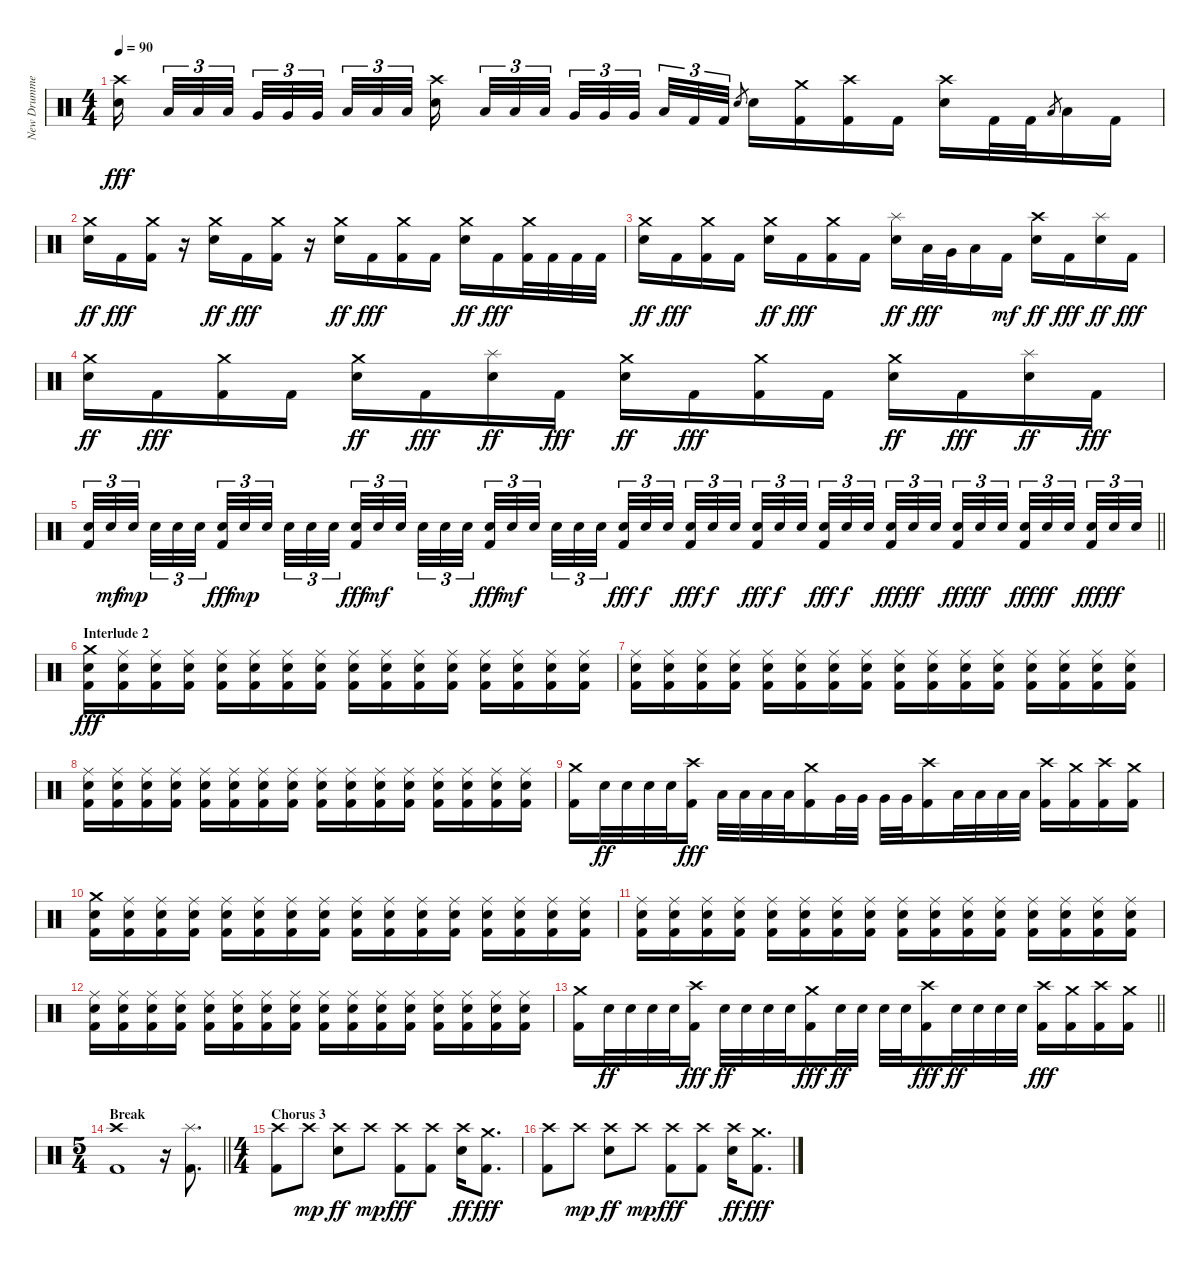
\track ("New Drummer" "New Drumme") {instrument percussion}
\staff {score}
\articulation defaults
\ts (4 4)
\tempo 90
\clef neutral
\ks c
("Crash high (hit)" "Electric Snare (hit)").16{dy fff beam splitsecondary} "Low Tom (hit)".32{tu (3 2)} "Low Tom (hit)".32{tu (3 2)} "Low Tom (hit)".32{tu (3 2) beam splitsecondary} "Very Low Tom (hit)".32{tu (3 2)} "Very Low Tom (hit)".32{tu (3 2)} "Very Low Tom (hit)".32{tu (3 2) beam splitsecondary} "Low Floor Tom (hit)".32{tu (3 2)} "Low Floor Tom (hit)".32{tu (3 2)} "Low Floor Tom (hit)".32{tu (3 2)} ("Crash high (hit)" "Electric Snare (hit)").16{beam splitsecondary} "Low Tom (hit)".32{tu (3 2)} "Low Tom (hit)".32{tu (3 2)} "Low Tom (hit)".32{tu (3 2) beam splitsecondary} "Very Low Tom (hit)".32{tu (3 2)} "Very Low Tom (hit)".32{tu (3 2)} "Very Low Tom (hit)".32{tu (3 2) beam splitsecondary} "Low Floor Tom (hit)".32{tu (3 2)} "Kick (hit) 2".32{tu (3 2)} "Kick (hit) 2".32{tu (3 2)} "Electric Snare (hit)".8{gr} "Electric Snare (hit)".16 ("Crash medium (hit)" "Kick (hit) 2").16 ("Crash high (hit)" "Kick (hit) 2").16 "Kick (hit) 2".16 ("Crash high (hit)" "Electric Snare (hit)").16 "Kick (hit) 2".32 "Kick (hit) 2".32 "Low Floor Tom (hit)".8{gr} "Low Floor Tom (hit)".16 "Kick (hit) 2".16 |
("Crash medium (hit)" "Electric Snare (hit)").16{dy ff} "Kick (hit) 2".16{dy fff} ("Crash medium (hit)" "Kick (hit) 2").16 r.16 ("Crash medium (hit)" "Electric Snare (hit)").16{dy ff} "Kick (hit) 2".16{dy fff} ("Crash medium (hit)" "Kick (hit) 2").16 r.16 ("Crash medium (hit)" "Electric Snare (hit)").16{dy ff} "Kick (hit) 2".16{dy fff} ("Crash medium (hit)" "Kick (hit) 2").16 "Kick (hit) 2".16 ("Crash medium (hit)" "Electric Snare (hit)").16{dy ff} "Kick (hit) 2".16{dy fff} ("Crash medium (hit)" "Kick (hit) 2").32 "Kick (hit) 2".32 "Kick (hit) 2".32 "Kick (hit) 2".32 |
("Crash medium (hit)" "Electric Snare (hit)").16{dy ff} "Kick (hit) 2".16{dy fff} ("Crash medium (hit)" "Kick (hit) 2").16 "Kick (hit) 2".16 ("Crash medium (hit)" "Electric Snare (hit)").16{dy ff} "Kick (hit) 2".16{dy fff} ("Crash medium (hit)" "Kick (hit) 2").16 "Kick (hit) 2".16 ("Splash (hit)" "Electric Snare (hit)").16{dy ff} "Low Tom (hit)".32{dy fff} "Very Low Tom (hit)".32 "Low Floor Tom (hit)".16 "Kick (hit) 2".16{dy mf} ("Crash high (hit)" "Electric Snare (hit)").16{dy ff} "Kick (hit) 2".16{dy fff} ("Splash (hit)" "Electric Snare (hit)").16{dy ff} "Kick (hit) 2".16{dy fff} |
("Crash medium (hit)" "Electric Snare (hit)").16{dy ff} "Kick (hit) 2".16{dy fff} ("Crash medium (hit)" "Kick (hit) 2").16 "Kick (hit) 2".16 ("Crash medium (hit)" "Electric Snare (hit)").16{dy ff} "Kick (hit) 2".16{dy fff} ("Splash (hit)" "Electric Snare (hit)").16{dy ff} "Kick (hit) 2".16{dy fff} ("Crash medium (hit)" "Electric Snare (hit)").16{dy ff} "Kick (hit) 2".16{dy fff} ("Crash medium (hit)" "Kick (hit) 2").16 "Kick (hit) 2".16 ("Crash medium (hit)" "Electric Snare (hit)").16{dy ff} "Kick (hit) 2".16{dy fff} ("Splash (hit)" "Electric Snare (hit)").16{dy ff} "Kick (hit) 2".16{dy fff} |
\barLineRight lightlight
("Electric Snare (hit)" "Kick (hit) 2").32{tu (3 2)} "Electric Snare (hit)".32{tu (3 2) dy mf} "Electric Snare (hit)".32{tu (3 2) dy mp beam splitsecondary} "Electric Snare (hit)".32{tu (3 2)} "Electric Snare (hit)".32{tu (3 2)} "Electric Snare (hit)".32{tu (3 2) beam splitsecondary} ("Electric Snare (hit)" "Kick (hit) 2").32{tu (3 2) dy fff} "Electric Snare (hit)".32{tu (3 2) dy mp} "Electric Snare (hit)".32{tu (3 2) beam splitsecondary} "Electric Snare (hit)".32{tu (3 2)} "Electric Snare (hit)".32{tu (3 2)} "Electric Snare (hit)".32{tu (3 2)} ("Electric Snare (hit)" "Kick (hit) 2").32{tu (3 2) dy fff} "Electric Snare (hit)".32{tu (3 2) dy mf} "Electric Snare (hit)".32{tu (3 2) beam splitsecondary} "Electric Snare (hit)".32{tu (3 2)} "Electric Snare (hit)".32{tu (3 2)} "Electric Snare (hit)".32{tu (3 2) beam splitsecondary} ("Electric Snare (hit)" "Kick (hit) 2").32{tu (3 2) dy fff} "Electric Snare (hit)".32{tu (3 2) dy mf} "Electric Snare (hit)".32{tu (3 2) beam splitsecondary} "Electric Snare (hit)".32{tu (3 2)} "Electric Snare (hit)".32{tu (3 2)} "Electric Snare (hit)".32{tu (3 2)} ("Electric Snare (hit)" "Kick (hit) 2").32{tu (3 2) dy fff} "Electric Snare (hit)".32{tu (3 2) dy f} "Electric Snare (hit)".32{tu (3 2) beam splitsecondary} ("Electric Snare (hit)" "Kick (hit) 2").32{tu (3 2) dy fff} "Electric Snare (hit)".32{tu (3 2) dy f} "Electric Snare (hit)".32{tu (3 2) beam splitsecondary} ("Electric Snare (hit)" "Kick (hit) 2").32{tu (3 2) dy fff} "Electric Snare (hit)".32{tu (3 2) dy f} "Electric Snare (hit)".32{tu (3 2) beam splitsecondary} ("Electric Snare (hit)" "Kick (hit) 2").32{tu (3 2) dy fff} "Electric Snare (hit)".32{tu (3 2) dy f} "Electric Snare (hit)".32{tu (3 2)} ("Electric Snare (hit)" "Kick (hit) 2").32{tu (3 2) dy fff} "Electric Snare (hit)".32{tu (3 2) dy ff} "Electric Snare (hit)".32{tu (3 2) beam splitsecondary} ("Electric Snare (hit)" "Kick (hit) 2").32{tu (3 2) dy fff} "Electric Snare (hit)".32{tu (3 2) dy ff} "Electric Snare (hit)".32{tu (3 2) beam splitsecondary} ("Electric Snare (hit)" "Kick (hit) 2").32{tu (3 2) dy fff} "Electric Snare (hit)".32{tu (3 2) dy ff} "Electric Snare (hit)".32{tu (3 2) beam splitsecondary} ("Electric Snare (hit)" "Kick (hit) 2").32{tu (3 2) dy fff} "Electric Snare (hit)".32{tu (3 2) dy ff} "Electric Snare (hit)".32{tu (3 2)} |
\section ("" "Interlude 2")
("Crash medium (hit)" "Electric Snare (hit)" "Kick (hit) 2").16{dy fff} ("Ride (middle)" "Electric Snare (hit)" "Kick (hit) 2").16 ("Ride (middle)" "Electric Snare (hit)" "Kick (hit) 2").16 ("Ride (middle)" "Electric Snare (hit)" "Kick (hit) 2").16 ("Ride (middle)" "Electric Snare (hit)" "Kick (hit) 2").16 ("Ride (middle)" "Electric Snare (hit)" "Kick (hit) 2").16 ("Ride (middle)" "Electric Snare (hit)" "Kick (hit) 2").16 ("Ride (middle)" "Electric Snare (hit)" "Kick (hit) 2").16 ("Ride (middle)" "Electric Snare (hit)" "Kick (hit) 2").16 ("Ride (middle)" "Electric Snare (hit)" "Kick (hit) 2").16 ("Ride (middle)" "Electric Snare (hit)" "Kick (hit) 2").16 ("Ride (middle)" "Electric Snare (hit)" "Kick (hit) 2").16 ("Ride (middle)" "Electric Snare (hit)" "Kick (hit) 2").16 ("Ride (middle)" "Electric Snare (hit)" "Kick (hit) 2").16 ("Ride (middle)" "Electric Snare (hit)" "Kick (hit) 2").16 ("Ride (middle)" "Electric Snare (hit)" "Kick (hit) 2").16 |
("Ride (middle)" "Electric Snare (hit)" "Kick (hit) 2").16 ("Ride (middle)" "Electric Snare (hit)" "Kick (hit) 2").16 ("Ride (middle)" "Electric Snare (hit)" "Kick (hit) 2").16 ("Ride (middle)" "Electric Snare (hit)" "Kick (hit) 2").16 ("Ride (middle)" "Electric Snare (hit)" "Kick (hit) 2").16 ("Ride (middle)" "Electric Snare (hit)" "Kick (hit) 2").16 ("Ride (middle)" "Electric Snare (hit)" "Kick (hit) 2").16 ("Ride (middle)" "Electric Snare (hit)" "Kick (hit) 2").16 ("Ride (middle)" "Electric Snare (hit)" "Kick (hit) 2").16 ("Ride (middle)" "Electric Snare (hit)" "Kick (hit) 2").16 ("Ride (middle)" "Electric Snare (hit)" "Kick (hit) 2").16 ("Ride (middle)" "Electric Snare (hit)" "Kick (hit) 2").16 ("Ride (middle)" "Electric Snare (hit)" "Kick (hit) 2").16 ("Ride (middle)" "Electric Snare (hit)" "Kick (hit) 2").16 ("Ride (middle)" "Electric Snare (hit)" "Kick (hit) 2").16 ("Ride (middle)" "Electric Snare (hit)" "Kick (hit) 2").16 |
("Ride (middle)" "Electric Snare (hit)" "Kick (hit) 2").16 ("Ride (middle)" "Electric Snare (hit)" "Kick (hit) 2").16 ("Ride (middle)" "Electric Snare (hit)" "Kick (hit) 2").16 ("Ride (middle)" "Electric Snare (hit)" "Kick (hit) 2").16 ("Ride (middle)" "Electric Snare (hit)" "Kick (hit) 2").16 ("Ride (middle)" "Electric Snare (hit)" "Kick (hit) 2").16 ("Ride (middle)" "Electric Snare (hit)" "Kick (hit) 2").16 ("Ride (middle)" "Electric Snare (hit)" "Kick (hit) 2").16 ("Ride (middle)" "Electric Snare (hit)" "Kick (hit) 2").16 ("Ride (middle)" "Electric Snare (hit)" "Kick (hit) 2").16 ("Ride (middle)" "Electric Snare (hit)" "Kick (hit) 2").16 ("Ride (middle)" "Electric Snare (hit)" "Kick (hit) 2").16 ("Ride (middle)" "Electric Snare (hit)" "Kick (hit) 2").16 ("Ride (middle)" "Electric Snare (hit)" "Kick (hit) 2").16 ("Ride (middle)" "Electric Snare (hit)" "Kick (hit) 2").16 ("Ride (middle)" "Electric Snare (hit)" "Kick (hit) 2").16 |
("Crash medium (hit)" "Kick (hit) 2").16 "Electric Snare (hit)".32{dy ff} "Electric Snare (hit)".32 "Electric Snare (hit)".32 "Electric Snare (hit)".32 ("Crash high (hit)" "Kick (hit) 2").16{dy fff} "Low Tom (hit)".32 "Low Tom (hit)".32 "Low Tom (hit)".32 "Low Tom (hit)".32 ("Crash medium (hit)" "Kick (hit) 2").16 "Very Low Tom (hit)".32 "Very Low Tom (hit)".32 "Very Low Tom (hit)".32 "Very Low Tom (hit)".32 ("Crash high (hit)" "Kick (hit) 2").16 "Low Floor Tom (hit)".32 "Low Floor Tom (hit)".32 "Low Floor Tom (hit)".32 "Low Floor Tom (hit)".32 ("Crash high (hit)" "Kick (hit) 2").16 ("Crash medium (hit)" "Kick (hit) 2").16 ("Crash high (hit)" "Kick (hit) 2").16 ("Crash medium (hit)" "Kick (hit) 2").16 |
("Crash medium (hit)" "Electric Snare (hit)" "Kick (hit) 2").16 ("Ride (middle)" "Electric Snare (hit)" "Kick (hit) 2").16 ("Ride (middle)" "Electric Snare (hit)" "Kick (hit) 2").16 ("Ride (middle)" "Electric Snare (hit)" "Kick (hit) 2").16 ("Ride (middle)" "Electric Snare (hit)" "Kick (hit) 2").16 ("Ride (middle)" "Electric Snare (hit)" "Kick (hit) 2").16 ("Ride (middle)" "Electric Snare (hit)" "Kick (hit) 2").16 ("Ride (middle)" "Electric Snare (hit)" "Kick (hit) 2").16 ("Ride (middle)" "Electric Snare (hit)" "Kick (hit) 2").16 ("Ride (middle)" "Electric Snare (hit)" "Kick (hit) 2").16 ("Ride (middle)" "Electric Snare (hit)" "Kick (hit) 2").16 ("Ride (middle)" "Electric Snare (hit)" "Kick (hit) 2").16 ("Ride (middle)" "Electric Snare (hit)" "Kick (hit) 2").16 ("Ride (middle)" "Electric Snare (hit)" "Kick (hit) 2").16 ("Ride (middle)" "Electric Snare (hit)" "Kick (hit) 2").16 ("Ride (middle)" "Electric Snare (hit)" "Kick (hit) 2").16 |
("Ride (middle)" "Electric Snare (hit)" "Kick (hit) 2").16 ("Ride (middle)" "Electric Snare (hit)" "Kick (hit) 2").16 ("Ride (middle)" "Electric Snare (hit)" "Kick (hit) 2").16 ("Ride (middle)" "Electric Snare (hit)" "Kick (hit) 2").16 ("Ride (middle)" "Electric Snare (hit)" "Kick (hit) 2").16 ("Ride (middle)" "Electric Snare (hit)" "Kick (hit) 2").16 ("Ride (middle)" "Electric Snare (hit)" "Kick (hit) 2").16 ("Ride (middle)" "Electric Snare (hit)" "Kick (hit) 2").16 ("Ride (middle)" "Electric Snare (hit)" "Kick (hit) 2").16 ("Ride (middle)" "Electric Snare (hit)" "Kick (hit) 2").16 ("Ride (middle)" "Electric Snare (hit)" "Kick (hit) 2").16 ("Ride (middle)" "Electric Snare (hit)" "Kick (hit) 2").16 ("Ride (middle)" "Electric Snare (hit)" "Kick (hit) 2").16 ("Ride (middle)" "Electric Snare (hit)" "Kick (hit) 2").16 ("Ride (middle)" "Electric Snare (hit)" "Kick (hit) 2").16 ("Ride (middle)" "Electric Snare (hit)" "Kick (hit) 2").16 |
("Ride (middle)" "Electric Snare (hit)" "Kick (hit) 2").16 ("Ride (middle)" "Electric Snare (hit)" "Kick (hit) 2").16 ("Ride (middle)" "Electric Snare (hit)" "Kick (hit) 2").16 ("Ride (middle)" "Electric Snare (hit)" "Kick (hit) 2").16 ("Ride (middle)" "Electric Snare (hit)" "Kick (hit) 2").16 ("Ride (middle)" "Electric Snare (hit)" "Kick (hit) 2").16 ("Ride (middle)" "Electric Snare (hit)" "Kick (hit) 2").16 ("Ride (middle)" "Electric Snare (hit)" "Kick (hit) 2").16 ("Ride (middle)" "Electric Snare (hit)" "Kick (hit) 2").16 ("Ride (middle)" "Electric Snare (hit)" "Kick (hit) 2").16 ("Ride (middle)" "Electric Snare (hit)" "Kick (hit) 2").16 ("Ride (middle)" "Electric Snare (hit)" "Kick (hit) 2").16 ("Ride (middle)" "Electric Snare (hit)" "Kick (hit) 2").16 ("Ride (middle)" "Electric Snare (hit)" "Kick (hit) 2").16 ("Ride (middle)" "Electric Snare (hit)" "Kick (hit) 2").16 ("Ride (middle)" "Electric Snare (hit)" "Kick (hit) 2").16 |
\barLineRight lightlight
("Crash medium (hit)" "Kick (hit) 2").16 "Electric Snare (hit)".32{dy ff} "Electric Snare (hit)".32 "Electric Snare (hit)".32 "Electric Snare (hit)".32 ("Crash high (hit)" "Kick (hit) 2").16{dy fff} "Electric Snare (hit)".32{dy ff} "Electric Snare (hit)".32 "Electric Snare (hit)".32 "Electric Snare (hit)".32 ("Crash medium (hit)" "Kick (hit) 2").16{dy fff} "Electric Snare (hit)".32{dy ff} "Electric Snare (hit)".32 "Electric Snare (hit)".32 "Electric Snare (hit)".32 ("Crash high (hit)" "Kick (hit) 2").16{dy fff} "Electric Snare (hit)".32{dy ff} "Electric Snare (hit)".32 "Electric Snare (hit)".32 "Electric Snare (hit)".32 ("Crash high (hit)" "Kick (hit) 2").16{dy fff} ("Crash medium (hit)" "Kick (hit) 2").16 ("Crash high (hit)" "Kick (hit) 2").16 ("Crash medium (hit)" "Kick (hit) 2").16 |
\ts (5 4)
\section ("" "Break")
\barLineRight lightlight
("Crash high (hit)" "Kick (hit) 2").1 r.16 ("Splash (hit)" "Kick (hit) 2").8{d} |
\ts (4 4)
\section ("" "Chorus 3")
("Crash high (hit)" "Kick (hit) 2").8 "Crash high (hit)".8{dy mp} ("Crash high (hit)" "Electric Snare (hit)").8{dy ff} "Crash high (hit)".8{dy mp} ("Crash high (hit)" "Kick (hit) 2").8{dy fff} ("Crash high (hit)" "Kick (hit) 2").8 ("Crash high (hit)" "Electric Snare (hit)").16{dy ff} ("Crash medium (hit)" "Kick (hit) 2").8{d dy fff} |
("Crash high (hit)" "Kick (hit) 2").8 "Crash high (hit)".8{dy mp} ("Crash high (hit)" "Electric Snare (hit)").8{dy ff} "Crash high (hit)".8{dy mp} ("Crash high (hit)" "Kick (hit) 2").8{dy fff} ("Crash high (hit)" "Kick (hit) 2").8 ("Crash high (hit)" "Electric Snare (hit)").16{dy ff} ("Crash medium (hit)" "Kick (hit) 2").8{d dy fff}
